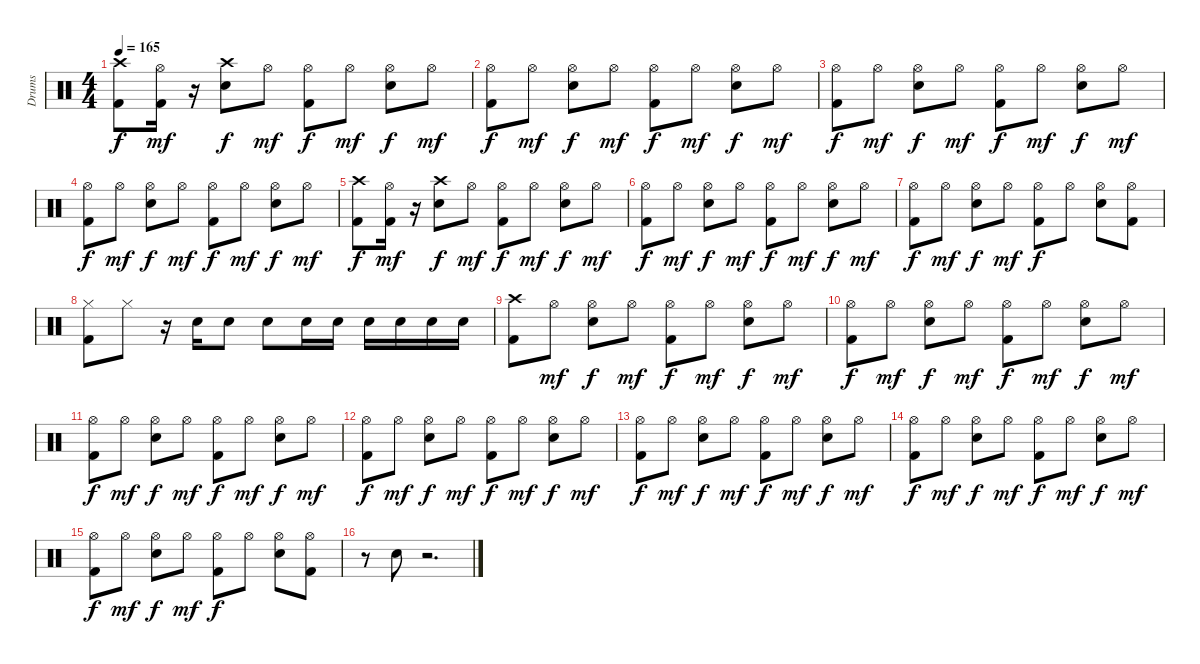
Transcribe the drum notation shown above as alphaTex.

\track ("Drums" "Drums") {instrument percussion}
\staff {score}
\articulation defaults
\ts (4 4)
\tempo 165
\clef neutral
\ks c
("Crash high (hit)" "Kick (hit) 2").8{dy f} ("Hi-Hat (open)" "Kick (hit) 2").16{dy mf} r.16 ("Crash high (hit)" "Electric Snare (hit)").8{dy f} "Hi-Hat (open)".8{dy mf} ("Hi-Hat (open)" "Kick (hit) 2").8{dy f} "Hi-Hat (open)".8{dy mf} ("Hi-Hat (open)" "Electric Snare (hit)").8{dy f} "Hi-Hat (open)".8{dy mf} |
("Hi-Hat (open)" "Kick (hit) 2").8{dy f} "Hi-Hat (open)".8{dy mf} ("Hi-Hat (open)" "Electric Snare (hit)").8{dy f} "Hi-Hat (open)".8{dy mf} ("Hi-Hat (open)" "Kick (hit) 2").8{dy f} "Hi-Hat (open)".8{dy mf} ("Hi-Hat (open)" "Electric Snare (hit)").8{dy f} "Hi-Hat (open)".8{dy mf} |
("Hi-Hat (open)" "Kick (hit) 2").8{dy f} "Hi-Hat (open)".8{dy mf} ("Hi-Hat (open)" "Electric Snare (hit)").8{dy f} "Hi-Hat (open)".8{dy mf} ("Hi-Hat (open)" "Kick (hit) 2").8{dy f} "Hi-Hat (open)".8{dy mf} ("Hi-Hat (open)" "Electric Snare (hit)").8{dy f} "Hi-Hat (open)".8{dy mf} |
("Hi-Hat (open)" "Kick (hit) 2").8{dy f} "Hi-Hat (open)".8{dy mf} ("Hi-Hat (open)" "Electric Snare (hit)").8{dy f} "Hi-Hat (open)".8{dy mf} ("Hi-Hat (open)" "Kick (hit) 2").8{dy f} "Hi-Hat (open)".8{dy mf} ("Hi-Hat (open)" "Electric Snare (hit)").8{dy f} "Hi-Hat (open)".8{dy mf} |
("Crash high (hit)" "Kick (hit) 2").8{dy f} ("Hi-Hat (open)" "Kick (hit) 2").16{dy mf} r.16 ("Crash high (hit)" "Electric Snare (hit)").8{dy f} "Hi-Hat (open)".8{dy mf} ("Hi-Hat (open)" "Kick (hit) 2").8{dy f} "Hi-Hat (open)".8{dy mf} ("Hi-Hat (open)" "Electric Snare (hit)").8{dy f} "Hi-Hat (open)".8{dy mf} |
("Hi-Hat (open)" "Kick (hit) 2").8{dy f} "Hi-Hat (open)".8{dy mf} ("Hi-Hat (open)" "Electric Snare (hit)").8{dy f} "Hi-Hat (open)".8{dy mf} ("Hi-Hat (open)" "Kick (hit) 2").8{dy f} "Hi-Hat (open)".8{dy mf} ("Hi-Hat (open)" "Electric Snare (hit)").8{dy f} "Hi-Hat (open)".8{dy mf} |
("Hi-Hat (open)" "Kick (hit) 2").8{dy f} "Hi-Hat (open)".8{dy mf} ("Hi-Hat (open)" "Electric Snare (hit)").8{dy f} "Hi-Hat (open)".8{dy mf} ("Hi-Hat (open)" "Kick (hit) 2").8{dy f} "Hi-Hat (open)".8 ("Hi-Hat (open)" "Electric Snare (hit)").8 ("Hi-Hat (open)" "Kick (hit) 2").8 |
("Hi-Hat (closed)" "Kick (hit) 2").8 "Hi-Hat (closed)".8 r.16 "Electric Snare (hit)".16 "Electric Snare (hit)".8 "Electric Snare (hit)".8 "Electric Snare (hit)".16 "Electric Snare (hit)".16 "Electric Snare (hit)".16 "Electric Snare (hit)".16 "Electric Snare (hit)".16 "Electric Snare (hit)".16 |
("Crash high (hit)" "Kick (hit) 2").8 "Hi-Hat (open)".8{dy mf} ("Hi-Hat (open)" "Electric Snare (hit)").8{dy f} "Hi-Hat (open)".8{dy mf} ("Hi-Hat (open)" "Kick (hit) 2").8{dy f} "Hi-Hat (open)".8{dy mf} ("Hi-Hat (open)" "Electric Snare (hit)").8{dy f} "Hi-Hat (open)".8{dy mf} |
("Hi-Hat (open)" "Kick (hit) 2").8{dy f} "Hi-Hat (open)".8{dy mf} ("Hi-Hat (open)" "Electric Snare (hit)").8{dy f} "Hi-Hat (open)".8{dy mf} ("Hi-Hat (open)" "Kick (hit) 2").8{dy f} "Hi-Hat (open)".8{dy mf} ("Hi-Hat (open)" "Electric Snare (hit)").8{dy f} "Hi-Hat (open)".8{dy mf} |
("Hi-Hat (open)" "Kick (hit) 2").8{dy f} "Hi-Hat (open)".8{dy mf} ("Hi-Hat (open)" "Electric Snare (hit)").8{dy f} "Hi-Hat (open)".8{dy mf} ("Hi-Hat (open)" "Kick (hit) 2").8{dy f} "Hi-Hat (open)".8{dy mf} ("Hi-Hat (open)" "Electric Snare (hit)").8{dy f} "Hi-Hat (open)".8{dy mf} |
("Hi-Hat (open)" "Kick (hit) 2").8{dy f} "Hi-Hat (open)".8{dy mf} ("Hi-Hat (open)" "Electric Snare (hit)").8{dy f} "Hi-Hat (open)".8{dy mf} ("Hi-Hat (open)" "Kick (hit) 2").8{dy f} "Hi-Hat (open)".8{dy mf} ("Hi-Hat (open)" "Electric Snare (hit)").8{dy f} "Hi-Hat (open)".8{dy mf} |
("Hi-Hat (open)" "Kick (hit) 2").8{dy f} "Hi-Hat (open)".8{dy mf} ("Hi-Hat (open)" "Electric Snare (hit)").8{dy f} "Hi-Hat (open)".8{dy mf} ("Hi-Hat (open)" "Kick (hit) 2").8{dy f} "Hi-Hat (open)".8{dy mf} ("Hi-Hat (open)" "Electric Snare (hit)").8{dy f} "Hi-Hat (open)".8{dy mf} |
("Hi-Hat (open)" "Kick (hit) 2").8{dy f} "Hi-Hat (open)".8{dy mf} ("Hi-Hat (open)" "Electric Snare (hit)").8{dy f} "Hi-Hat (open)".8{dy mf} ("Hi-Hat (open)" "Kick (hit) 2").8{dy f} "Hi-Hat (open)".8{dy mf} ("Hi-Hat (open)" "Electric Snare (hit)").8{dy f} "Hi-Hat (open)".8{dy mf} |
("Hi-Hat (open)" "Kick (hit) 2").8{dy f} "Hi-Hat (open)".8{dy mf} ("Hi-Hat (open)" "Electric Snare (hit)").8{dy f} "Hi-Hat (open)".8{dy mf} ("Hi-Hat (open)" "Kick (hit) 2").8{dy f} "Hi-Hat (open)".8 ("Hi-Hat (open)" "Electric Snare (hit)").8 ("Hi-Hat (open)" "Kick (hit) 2").8 |
r.8 "Electric Snare (hit)".8 r.2{d}
